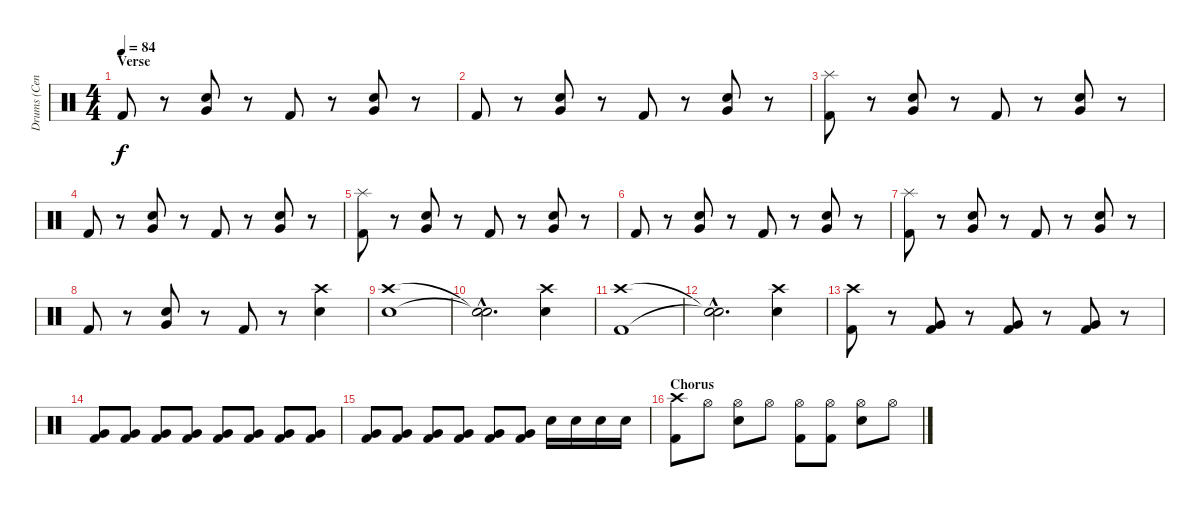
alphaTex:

\track ("Drums (Cenk)" "Drums (Cen") {instrument percussion}
\staff {score}
\articulation defaults
\ts (4 4)
\section ("" "Verse")
\tempo 84
\clef neutral
\ks c "Kick (hit) 2".8{dy f}
r.8 ("Very Low Tom (hit)" "Snare (hit) 2").8 r.8 "Kick (hit) 2".8 r.8 ("Very Low Tom (hit)" "Snare (hit) 2").8 r.8 |
"Kick (hit) 2".8 r.8 ("Very Low Tom (hit)" "Snare (hit) 2").8 r.8 "Kick (hit) 2".8 r.8 ("Very Low Tom (hit)" "Snare (hit) 2").8 r.8 |
("Splash (hit)" "Kick (hit) 2").8 r.8 ("Very Low Tom (hit)" "Snare (hit) 2").8 r.8 "Kick (hit) 2".8 r.8 ("Very Low Tom (hit)" "Snare (hit) 2").8 r.8 |
"Kick (hit) 2".8 r.8 ("Very Low Tom (hit)" "Snare (hit) 2").8 r.8 "Kick (hit) 2".8 r.8 ("Very Low Tom (hit)" "Snare (hit) 2").8 r.8 |
("Splash (hit)" "Kick (hit) 2").8 r.8 ("Very Low Tom (hit)" "Snare (hit) 2").8 r.8 "Kick (hit) 2".8 r.8 ("Very Low Tom (hit)" "Snare (hit) 2").8 r.8 |
"Kick (hit) 2".8 r.8 ("Very Low Tom (hit)" "Snare (hit) 2").8 r.8 "Kick (hit) 2".8 r.8 ("Very Low Tom (hit)" "Snare (hit) 2").8 r.8 |
("Splash (hit)" "Kick (hit) 2").8 r.8 ("Very Low Tom (hit)" "Snare (hit) 2").8 r.8 "Kick (hit) 2".8 r.8 ("Very Low Tom (hit)" "Snare (hit) 2").8 r.8 |
"Kick (hit) 2".8 r.8 ("Very Low Tom (hit)" "Snare (hit) 2").8 r.8 "Kick (hit) 2".8 r.8 ("Crash high (hit)" "Snare (hit) 2").4 |
("Crash high (hit)" "Snare (hit) 2").1 |
("Snare (hit)"{hac t} "Snare (hit)"{hac t}).2{d} ("Crash high (hit)" "Snare (hit) 2").4 |
("Crash high (hit)" "Kick (hit) 2").1 |
("Snare (hit)"{hac t} "Snare (hit)"{hac t}).2{d} ("Crash high (hit)" "Snare (hit) 2").4 |
("Crash high (hit)" "Kick (hit) 2").8 r.8 ("Very Low Tom (hit)" "Kick (hit) 2").8 r.8 ("Very Low Tom (hit)" "Kick (hit) 2").8 r.8 ("Very Low Tom (hit)" "Kick (hit) 2").8 r.8 |
("Very Low Tom (hit)" "Kick (hit) 2").8 ("Very Low Tom (hit)" "Kick (hit) 2").8 ("Very Low Tom (hit)" "Kick (hit) 2").8 ("Very Low Tom (hit)" "Kick (hit) 2").8 ("Very Low Tom (hit)" "Kick (hit) 2").8 ("Very Low Tom (hit)" "Kick (hit) 2").8 ("Very Low Tom (hit)" "Kick (hit) 2").8 ("Very Low Tom (hit)" "Kick (hit) 2").8 |
("Very Low Tom (hit)" "Kick (hit) 2").8 ("Very Low Tom (hit)" "Kick (hit) 2").8 ("Very Low Tom (hit)" "Kick (hit) 2").8 ("Very Low Tom (hit)" "Kick (hit) 2").8 ("Very Low Tom (hit)" "Kick (hit) 2").8 ("Very Low Tom (hit)" "Kick (hit) 2").8 "Snare (hit) 2".16 "Snare (hit) 2".16 "Snare (hit) 2".16 "Snare (hit) 2".16 |
\section ("" "Chorus")
("Crash high (hit)" "Kick (hit) 2").8 "Hi-Hat (open)".8 ("Hi-Hat (open)" "Snare (hit) 2").8 "Hi-Hat (open)".8 ("Hi-Hat (open)" "Kick (hit) 2").8 ("Hi-Hat (open)" "Kick (hit) 2").8 ("Hi-Hat (open)" "Snare (hit) 2").8 "Hi-Hat (open)".8
